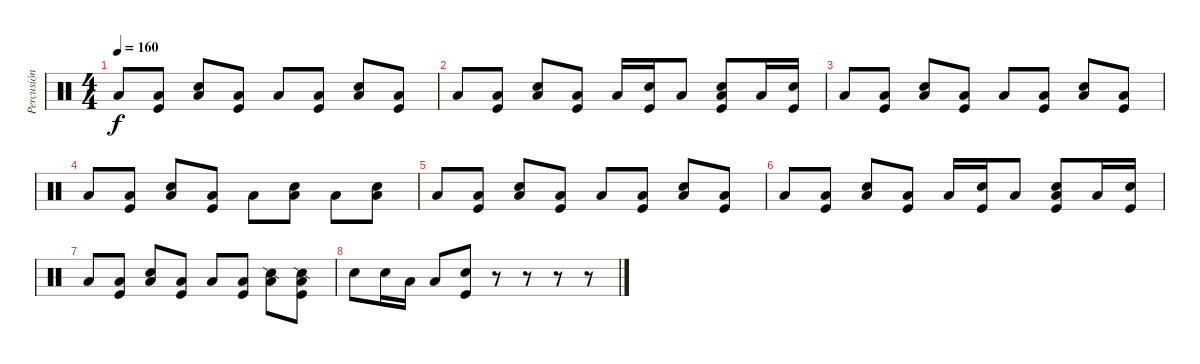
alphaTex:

\track ("Percusión" "Percusión") {instrument percussion}
\staff {score}
\articulation defaults
\ts (4 4)
\tempo 160
\clef neutral
\ks c "Low Floor Tom (hit)".8{dy f}
("Low Floor Tom (hit)" "Kick (hit)").8 ("Electric Snare (hit)" "Low Floor Tom (hit)").8 ("Low Floor Tom (hit)" "Kick (hit)").8 "Low Floor Tom (hit)".8 ("Low Floor Tom (hit)" "Kick (hit)").8 ("Electric Snare (hit)" "Low Floor Tom (hit)").8 ("Low Floor Tom (hit)" "Kick (hit)").8 |
"Low Floor Tom (hit)".8 ("Low Floor Tom (hit)" "Kick (hit)").8 ("Electric Snare (hit)" "Low Floor Tom (hit)").8 ("Low Floor Tom (hit)" "Kick (hit)").8 "Low Floor Tom (hit)".16 ("Electric Snare (hit)" "Kick (hit)").16 "Low Floor Tom (hit)".8 ("Electric Snare (hit)" "Low Floor Tom (hit)" "Kick (hit)").8 "Low Floor Tom (hit)".16 ("Electric Snare (hit)" "Kick (hit)").16 |
"Low Floor Tom (hit)".8 ("Low Floor Tom (hit)" "Kick (hit)").8 ("Electric Snare (hit)" "Low Floor Tom (hit)").8 ("Low Floor Tom (hit)" "Kick (hit)").8 "Low Floor Tom (hit)".8 ("Low Floor Tom (hit)" "Kick (hit)").8 ("Electric Snare (hit)" "Low Floor Tom (hit)").8 ("Low Floor Tom (hit)" "Kick (hit)").8 |
"Low Floor Tom (hit)".8 ("Low Floor Tom (hit)" "Kick (hit)").8 ("Electric Snare (hit)" "Low Floor Tom (hit)").8 ("Low Floor Tom (hit)" "Kick (hit)").8 "Low Floor Tom (hit)".8 ("Electric Snare (hit)" "Low Floor Tom (hit)").8 "Low Floor Tom (hit)".8 ("Electric Snare (hit)" "Low Floor Tom (hit)").8 |
"Low Floor Tom (hit)".8 ("Low Floor Tom (hit)" "Kick (hit)").8 ("Electric Snare (hit)" "Low Floor Tom (hit)").8 ("Low Floor Tom (hit)" "Kick (hit)").8 "Low Floor Tom (hit)".8 ("Low Floor Tom (hit)" "Kick (hit)").8 ("Electric Snare (hit)" "Low Floor Tom (hit)").8 ("Low Floor Tom (hit)" "Kick (hit)").8 |
"Low Floor Tom (hit)".8 ("Low Floor Tom (hit)" "Kick (hit)").8 ("Electric Snare (hit)" "Low Floor Tom (hit)").8 ("Low Floor Tom (hit)" "Kick (hit)").8 "Low Floor Tom (hit)".16 ("Electric Snare (hit)" "Kick (hit)").16 "Low Floor Tom (hit)".8 ("Electric Snare (hit)" "Low Floor Tom (hit)" "Kick (hit)").8 "Low Floor Tom (hit)".16 ("Electric Snare (hit)" "Kick (hit)").16 |
"Low Floor Tom (hit)".8 ("Low Floor Tom (hit)" "Kick (hit)").8 ("Electric Snare (hit)" "Low Floor Tom (hit)").8 ("Low Floor Tom (hit)" "Kick (hit)").8 "Low Floor Tom (hit)".8 ("Low Floor Tom (hit)" "Kick (hit)").8 ("Low Floor Tom (hit)" "Snare (side stick) 2").8 ("Low Floor Tom (hit)" "Kick (hit)" "Snare (side stick) 2").8 |
"Electric Snare (hit)".8 "Electric Snare (hit)".16 "Low Floor Tom (hit)".16 "Low Tom (hit)".8 ("Electric Snare (hit)" "Kick (hit)").8 r.8 r.8 r.8 r.8
